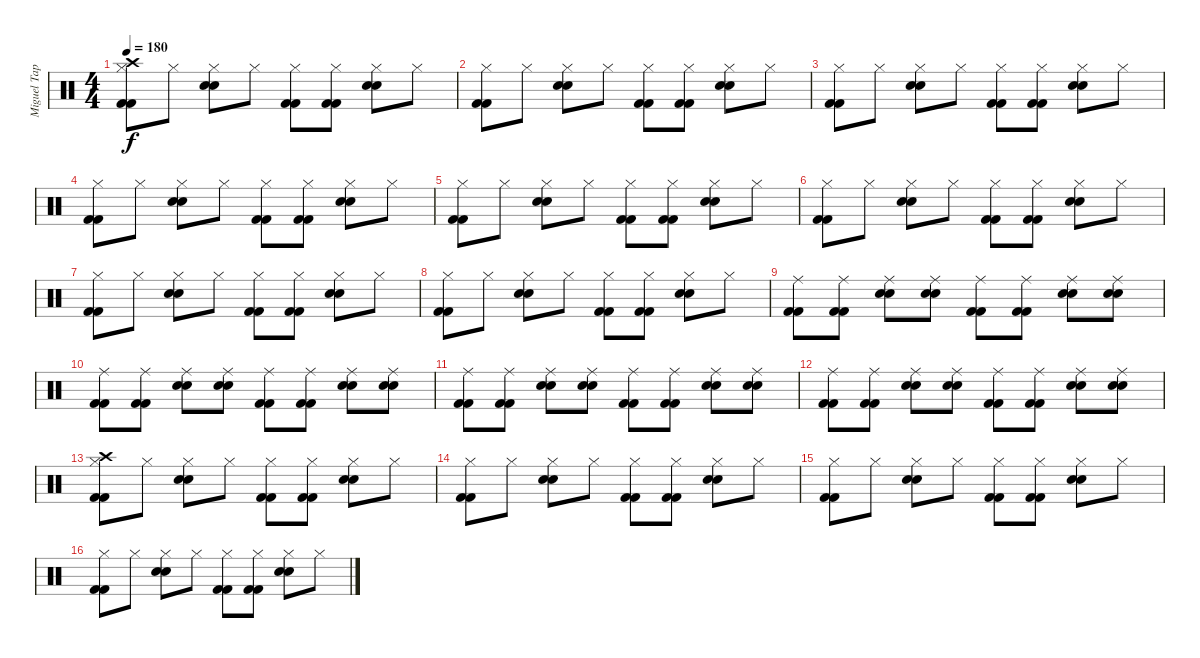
\track ("Miguel Tapia" "Miguel Tap") {instrument percussion}
\staff {score}
\articulation defaults
\ts (4 4)
\tempo 180
\clef neutral
\ks c
("Hi-Hat (closed)" "Kick (hit) 2" "Kick (hit) 2" "Crash high (hit)").8{dy f} "Hi-Hat (closed)".8 ("Hi-Hat (closed)" "Electric Snare (hit)" "Electric Snare (hit)").8 "Hi-Hat (closed)".8 ("Hi-Hat (closed)" "Kick (hit) 2" "Kick (hit) 2").8 ("Hi-Hat (closed)" "Kick (hit) 2" "Kick (hit) 2").8 ("Hi-Hat (closed)" "Electric Snare (hit)" "Electric Snare (hit)").8 "Hi-Hat (closed)".8 |
("Hi-Hat (closed)" "Kick (hit) 2" "Kick (hit) 2").8 "Hi-Hat (closed)".8 ("Hi-Hat (closed)" "Electric Snare (hit)" "Electric Snare (hit)").8 "Hi-Hat (closed)".8 ("Hi-Hat (closed)" "Kick (hit) 2" "Kick (hit) 2").8 ("Hi-Hat (closed)" "Kick (hit) 2" "Kick (hit) 2").8 ("Hi-Hat (closed)" "Electric Snare (hit)" "Electric Snare (hit)").8 "Hi-Hat (closed)".8 |
("Hi-Hat (closed)" "Kick (hit) 2" "Kick (hit) 2").8 "Hi-Hat (closed)".8 ("Hi-Hat (closed)" "Electric Snare (hit)" "Electric Snare (hit)").8 "Hi-Hat (closed)".8 ("Hi-Hat (closed)" "Kick (hit) 2" "Kick (hit) 2").8 ("Hi-Hat (closed)" "Kick (hit) 2" "Kick (hit) 2").8 ("Hi-Hat (closed)" "Electric Snare (hit)" "Electric Snare (hit)").8 "Hi-Hat (closed)".8 |
("Hi-Hat (closed)" "Kick (hit) 2" "Kick (hit) 2").8 "Hi-Hat (closed)".8 ("Hi-Hat (closed)" "Electric Snare (hit)" "Electric Snare (hit)").8 "Hi-Hat (closed)".8 ("Hi-Hat (closed)" "Kick (hit) 2" "Kick (hit) 2").8 ("Hi-Hat (closed)" "Kick (hit) 2" "Kick (hit) 2").8 ("Hi-Hat (closed)" "Electric Snare (hit)" "Electric Snare (hit)").8 "Hi-Hat (closed)".8 |
("Hi-Hat (closed)" "Kick (hit) 2" "Kick (hit) 2").8 "Hi-Hat (closed)".8 ("Hi-Hat (closed)" "Electric Snare (hit)" "Electric Snare (hit)").8 "Hi-Hat (closed)".8 ("Hi-Hat (closed)" "Kick (hit) 2" "Kick (hit) 2").8 ("Hi-Hat (closed)" "Kick (hit) 2" "Kick (hit) 2").8 ("Hi-Hat (closed)" "Electric Snare (hit)" "Electric Snare (hit)").8 "Hi-Hat (closed)".8 |
("Hi-Hat (closed)" "Kick (hit) 2" "Kick (hit) 2").8 "Hi-Hat (closed)".8 ("Hi-Hat (closed)" "Electric Snare (hit)" "Electric Snare (hit)").8 "Hi-Hat (closed)".8 ("Hi-Hat (closed)" "Kick (hit) 2" "Kick (hit) 2").8 ("Hi-Hat (closed)" "Kick (hit) 2" "Kick (hit) 2").8 ("Hi-Hat (closed)" "Electric Snare (hit)" "Electric Snare (hit)").8 "Hi-Hat (closed)".8 |
("Hi-Hat (closed)" "Kick (hit) 2" "Kick (hit) 2").8 "Hi-Hat (closed)".8 ("Hi-Hat (closed)" "Electric Snare (hit)" "Electric Snare (hit)").8 "Hi-Hat (closed)".8 ("Hi-Hat (closed)" "Kick (hit) 2" "Kick (hit) 2").8 ("Hi-Hat (closed)" "Kick (hit) 2" "Kick (hit) 2").8 ("Hi-Hat (closed)" "Electric Snare (hit)" "Electric Snare (hit)").8 "Hi-Hat (closed)".8 |
("Hi-Hat (closed)" "Kick (hit) 2" "Kick (hit) 2").8 "Hi-Hat (closed)".8 ("Hi-Hat (closed)" "Electric Snare (hit)" "Electric Snare (hit)").8 "Hi-Hat (closed)".8 ("Hi-Hat (closed)" "Kick (hit) 2" "Kick (hit) 2").8 ("Hi-Hat (closed)" "Kick (hit) 2" "Kick (hit) 2").8 ("Hi-Hat (closed)" "Electric Snare (hit)" "Electric Snare (hit)").8 "Hi-Hat (closed)".8 |
("Ride (middle)" "Kick (hit) 2" "Kick (hit) 2").8 ("Ride (middle)" "Kick (hit) 2" "Kick (hit) 2").8 ("Ride (middle)" "Electric Snare (hit)" "Electric Snare (hit)").8 ("Ride (middle)" "Electric Snare (hit)" "Electric Snare (hit)").8 ("Ride (middle)" "Kick (hit) 2" "Kick (hit) 2").8 ("Ride (middle)" "Kick (hit) 2" "Kick (hit) 2").8 ("Ride (middle)" "Electric Snare (hit)" "Electric Snare (hit)").8 ("Ride (middle)" "Electric Snare (hit)" "Electric Snare (hit)").8 |
("Ride (middle)" "Kick (hit) 2" "Kick (hit) 2").8 ("Ride (middle)" "Kick (hit) 2" "Kick (hit) 2").8 ("Ride (middle)" "Electric Snare (hit)" "Electric Snare (hit)").8 ("Ride (middle)" "Electric Snare (hit)" "Electric Snare (hit)").8 ("Ride (middle)" "Kick (hit) 2" "Kick (hit) 2").8 ("Ride (middle)" "Kick (hit) 2" "Kick (hit) 2").8 ("Ride (middle)" "Electric Snare (hit)" "Electric Snare (hit)").8 ("Ride (middle)" "Electric Snare (hit)" "Electric Snare (hit)").8 |
("Ride (middle)" "Kick (hit) 2" "Kick (hit) 2").8 ("Ride (middle)" "Kick (hit) 2" "Kick (hit) 2").8 ("Ride (middle)" "Electric Snare (hit)" "Electric Snare (hit)").8 ("Ride (middle)" "Electric Snare (hit)" "Electric Snare (hit)").8 ("Ride (middle)" "Kick (hit) 2" "Kick (hit) 2").8 ("Ride (middle)" "Kick (hit) 2" "Kick (hit) 2").8 ("Ride (middle)" "Electric Snare (hit)" "Electric Snare (hit)").8 ("Ride (middle)" "Electric Snare (hit)" "Electric Snare (hit)").8 |
("Ride (middle)" "Kick (hit) 2" "Kick (hit) 2").8 ("Ride (middle)" "Kick (hit) 2" "Kick (hit) 2").8 ("Ride (middle)" "Electric Snare (hit)" "Electric Snare (hit)").8 ("Ride (middle)" "Electric Snare (hit)" "Electric Snare (hit)").8 ("Ride (middle)" "Kick (hit) 2" "Kick (hit) 2").8 ("Ride (middle)" "Kick (hit) 2" "Kick (hit) 2").8 ("Ride (middle)" "Electric Snare (hit)" "Electric Snare (hit)").8 ("Ride (middle)" "Electric Snare (hit)" "Electric Snare (hit)").8 |
("Hi-Hat (closed)" "Kick (hit) 2" "Kick (hit) 2" "Crash high (hit)").8 "Hi-Hat (closed)".8 ("Hi-Hat (closed)" "Electric Snare (hit)" "Electric Snare (hit)").8 "Hi-Hat (closed)".8 ("Hi-Hat (closed)" "Kick (hit) 2" "Kick (hit) 2").8 ("Hi-Hat (closed)" "Kick (hit) 2" "Kick (hit) 2").8 ("Hi-Hat (closed)" "Electric Snare (hit)" "Electric Snare (hit)").8 "Hi-Hat (closed)".8 |
("Hi-Hat (closed)" "Kick (hit) 2" "Kick (hit) 2").8 "Hi-Hat (closed)".8 ("Hi-Hat (closed)" "Electric Snare (hit)" "Electric Snare (hit)").8 "Hi-Hat (closed)".8 ("Hi-Hat (closed)" "Kick (hit) 2" "Kick (hit) 2").8 ("Hi-Hat (closed)" "Kick (hit) 2" "Kick (hit) 2").8 ("Hi-Hat (closed)" "Electric Snare (hit)" "Electric Snare (hit)").8 "Hi-Hat (closed)".8 |
("Hi-Hat (closed)" "Kick (hit) 2" "Kick (hit) 2").8 "Hi-Hat (closed)".8 ("Hi-Hat (closed)" "Electric Snare (hit)" "Electric Snare (hit)").8 "Hi-Hat (closed)".8 ("Hi-Hat (closed)" "Kick (hit) 2" "Kick (hit) 2").8 ("Hi-Hat (closed)" "Kick (hit) 2" "Kick (hit) 2").8 ("Hi-Hat (closed)" "Electric Snare (hit)" "Electric Snare (hit)").8 "Hi-Hat (closed)".8 |
("Hi-Hat (closed)" "Kick (hit) 2" "Kick (hit) 2").8 "Hi-Hat (closed)".8 ("Hi-Hat (closed)" "Electric Snare (hit)" "Electric Snare (hit)").8 "Hi-Hat (closed)".8 ("Hi-Hat (closed)" "Kick (hit) 2" "Kick (hit) 2").8 ("Hi-Hat (closed)" "Kick (hit) 2" "Kick (hit) 2").8 ("Hi-Hat (closed)" "Electric Snare (hit)" "Electric Snare (hit)").8 "Hi-Hat (closed)".8
